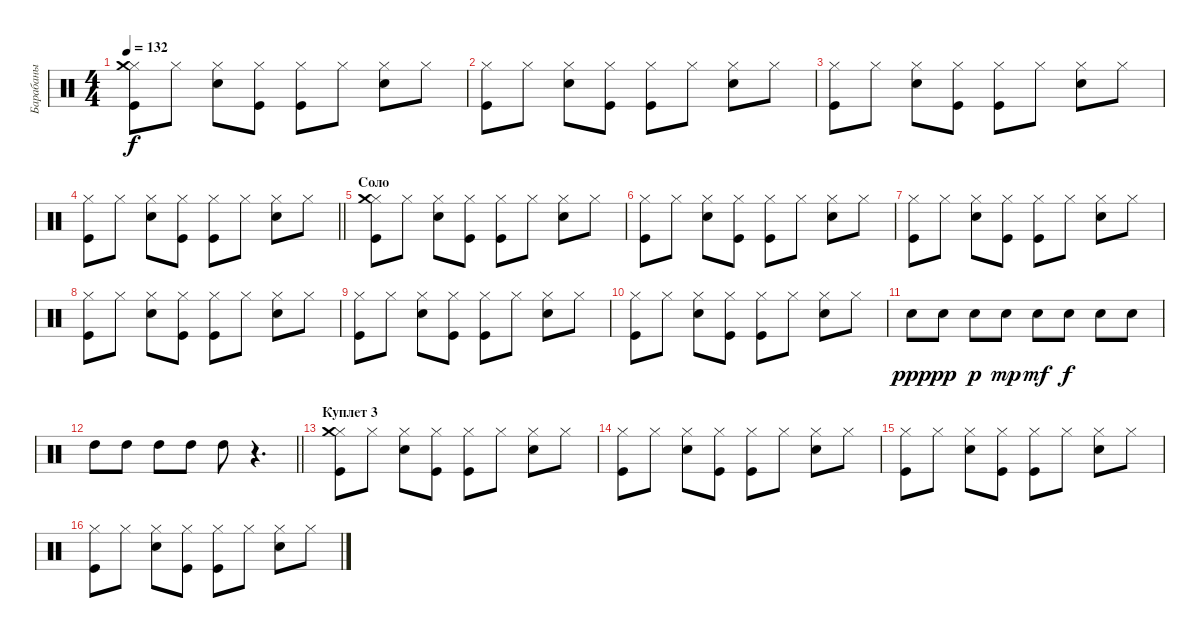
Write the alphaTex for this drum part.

\track ("Барабаны" "Барабаны") {instrument percussion}
\staff {score}
\articulation defaults
\ts (4 4)
\tempo 132
\clef neutral
\ks c
("Kick (hit)" "Hi-Hat (closed)" "Crash medium (hit)").8{dy f} "Hi-Hat (closed)".8 ("Snare (hit) 2" "Hi-Hat (closed)").8 ("Kick (hit)" "Hi-Hat (closed)").8 ("Kick (hit)" "Hi-Hat (closed)").8 "Hi-Hat (closed)".8 ("Snare (hit) 2" "Hi-Hat (closed)").8 "Hi-Hat (closed)".8 |
("Kick (hit)" "Hi-Hat (closed)").8 "Hi-Hat (closed)".8 ("Snare (hit) 2" "Hi-Hat (closed)").8 ("Kick (hit)" "Hi-Hat (closed)").8 ("Kick (hit)" "Hi-Hat (closed)").8 "Hi-Hat (closed)".8 ("Snare (hit) 2" "Hi-Hat (closed)").8 "Hi-Hat (closed)".8 |
("Kick (hit)" "Hi-Hat (closed)").8 "Hi-Hat (closed)".8 ("Snare (hit) 2" "Hi-Hat (closed)").8 ("Kick (hit)" "Hi-Hat (closed)").8 ("Kick (hit)" "Hi-Hat (closed)").8 "Hi-Hat (closed)".8 ("Snare (hit) 2" "Hi-Hat (closed)").8 "Hi-Hat (closed)".8 |
\barLineRight lightlight
("Kick (hit)" "Hi-Hat (closed)").8 "Hi-Hat (closed)".8 ("Snare (hit) 2" "Hi-Hat (closed)").8 ("Kick (hit)" "Hi-Hat (closed)").8 ("Kick (hit)" "Hi-Hat (closed)").8 "Hi-Hat (closed)".8 ("Snare (hit) 2" "Hi-Hat (closed)").8 "Hi-Hat (closed)".8 |
\section ("" "Соло")
("Kick (hit)" "Hi-Hat (closed)" "Crash medium (hit)").8 "Hi-Hat (closed)".8 ("Snare (hit) 2" "Hi-Hat (closed)").8 ("Kick (hit)" "Hi-Hat (closed)").8 ("Kick (hit)" "Hi-Hat (closed)").8 "Hi-Hat (closed)".8 ("Snare (hit) 2" "Hi-Hat (closed)").8 "Hi-Hat (closed)".8 |
("Kick (hit)" "Hi-Hat (closed)").8 "Hi-Hat (closed)".8 ("Snare (hit) 2" "Hi-Hat (closed)").8 ("Kick (hit)" "Hi-Hat (closed)").8 ("Kick (hit)" "Hi-Hat (closed)").8 "Hi-Hat (closed)".8 ("Snare (hit) 2" "Hi-Hat (closed)").8 "Hi-Hat (closed)".8 |
("Kick (hit)" "Hi-Hat (closed)").8 "Hi-Hat (closed)".8 ("Snare (hit) 2" "Hi-Hat (closed)").8 ("Kick (hit)" "Hi-Hat (closed)").8 ("Kick (hit)" "Hi-Hat (closed)").8 "Hi-Hat (closed)".8 ("Snare (hit) 2" "Hi-Hat (closed)").8 "Hi-Hat (closed)".8 |
("Kick (hit)" "Hi-Hat (closed)").8 "Hi-Hat (closed)".8 ("Snare (hit) 2" "Hi-Hat (closed)").8 ("Kick (hit)" "Hi-Hat (closed)").8 ("Kick (hit)" "Hi-Hat (closed)").8 "Hi-Hat (closed)".8 ("Snare (hit) 2" "Hi-Hat (closed)").8 "Hi-Hat (closed)".8 |
("Kick (hit)" "Hi-Hat (closed)").8 "Hi-Hat (closed)".8 ("Snare (hit) 2" "Hi-Hat (closed)").8 ("Kick (hit)" "Hi-Hat (closed)").8 ("Kick (hit)" "Hi-Hat (closed)").8 "Hi-Hat (closed)".8 ("Snare (hit) 2" "Hi-Hat (closed)").8 "Hi-Hat (closed)".8 |
("Kick (hit)" "Hi-Hat (closed)").8 "Hi-Hat (closed)".8 ("Snare (hit) 2" "Hi-Hat (closed)").8 ("Kick (hit)" "Hi-Hat (closed)").8 ("Kick (hit)" "Hi-Hat (closed)").8 "Hi-Hat (closed)".8 ("Snare (hit) 2" "Hi-Hat (closed)").8 "Hi-Hat (closed)".8 |
"Snare (hit) 2".8{dy ppp} "Snare (hit) 2".8{dy pp} "Snare (hit) 2".8{dy p} "Snare (hit) 2".8{dy mp} "Snare (hit) 2".8{dy mf} "Snare (hit) 2".8{dy f} "Snare (hit) 2".8 "Snare (hit) 2".8 |
\barLineRight lightlight "High Tom (hit)".8 "High Tom (hit)".8 "High Tom (hit)".8 "High Tom (hit)".8 "High Tom (hit)".8
r.4{d} |
\section ("" "Куплет 3")
("Kick (hit)" "Hi-Hat (closed)" "Crash medium (hit)").8 "Hi-Hat (closed)".8 ("Snare (hit) 2" "Hi-Hat (closed)").8 ("Kick (hit)" "Hi-Hat (closed)").8 ("Kick (hit)" "Hi-Hat (closed)").8 "Hi-Hat (closed)".8 ("Snare (hit) 2" "Hi-Hat (closed)").8 "Hi-Hat (closed)".8 |
("Kick (hit)" "Hi-Hat (closed)").8 "Hi-Hat (closed)".8 ("Snare (hit) 2" "Hi-Hat (closed)").8 ("Kick (hit)" "Hi-Hat (closed)").8 ("Kick (hit)" "Hi-Hat (closed)").8 "Hi-Hat (closed)".8 ("Snare (hit) 2" "Hi-Hat (closed)").8 "Hi-Hat (closed)".8 |
("Kick (hit)" "Hi-Hat (closed)").8 "Hi-Hat (closed)".8 ("Snare (hit) 2" "Hi-Hat (closed)").8 ("Kick (hit)" "Hi-Hat (closed)").8 ("Kick (hit)" "Hi-Hat (closed)").8 "Hi-Hat (closed)".8 ("Snare (hit) 2" "Hi-Hat (closed)").8 "Hi-Hat (closed)".8 |
("Kick (hit)" "Hi-Hat (closed)").8 "Hi-Hat (closed)".8 ("Snare (hit) 2" "Hi-Hat (closed)").8 ("Kick (hit)" "Hi-Hat (closed)").8 ("Kick (hit)" "Hi-Hat (closed)").8 "Hi-Hat (closed)".8 ("Snare (hit) 2" "Hi-Hat (closed)").8 "Hi-Hat (closed)".8
